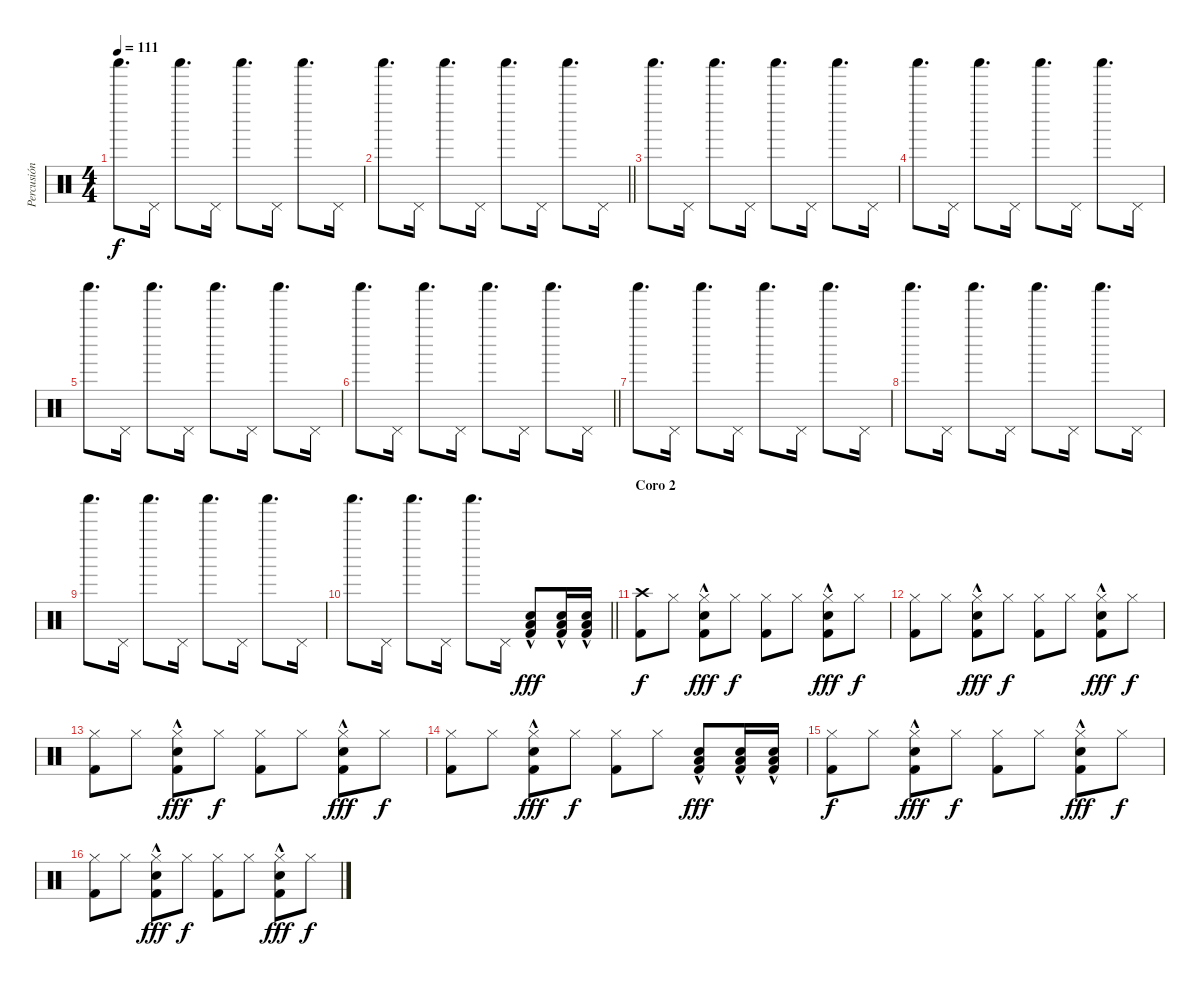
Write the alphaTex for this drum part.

\track ("Percusión" "Percusión") {instrument percussion}
\staff {score}
\articulation defaults
\ts (4 4)
\tempo 111
\clef neutral
\ks c "Shaker (hit)".8{d dy f} "Pedal Hi-Hat (hit)".16 "Shaker (hit)".8{d} "Pedal Hi-Hat (hit)".16 "Shaker (hit)".8{d} "Pedal Hi-Hat (hit)".16 "Shaker (hit)".8{d} "Pedal Hi-Hat (hit)".16
|
\barLineRight lightlight "Shaker (hit)".8{d} "Pedal Hi-Hat (hit)".16 "Shaker (hit)".8{d} "Pedal Hi-Hat (hit)".16 "Shaker (hit)".8{d} "Pedal Hi-Hat (hit)".16 "Shaker (hit)".8{d} "Pedal Hi-Hat (hit)".16
|
"Shaker (hit)".8{d} "Pedal Hi-Hat (hit)".16 "Shaker (hit)".8{d} "Pedal Hi-Hat (hit)".16 "Shaker (hit)".8{d} "Pedal Hi-Hat (hit)".16 "Shaker (hit)".8{d} "Pedal Hi-Hat (hit)".16 |
"Shaker (hit)".8{d} "Pedal Hi-Hat (hit)".16 "Shaker (hit)".8{d} "Pedal Hi-Hat (hit)".16 "Shaker (hit)".8{d} "Pedal Hi-Hat (hit)".16 "Shaker (hit)".8{d} "Pedal Hi-Hat (hit)".16 |
"Shaker (hit)".8{d} "Pedal Hi-Hat (hit)".16 "Shaker (hit)".8{d} "Pedal Hi-Hat (hit)".16 "Shaker (hit)".8{d} "Pedal Hi-Hat (hit)".16 "Shaker (hit)".8{d} "Pedal Hi-Hat (hit)".16 |
\barLineRight lightlight "Shaker (hit)".8{d} "Pedal Hi-Hat (hit)".16 "Shaker (hit)".8{d} "Pedal Hi-Hat (hit)".16 "Shaker (hit)".8{d} "Pedal Hi-Hat (hit)".16 "Shaker (hit)".8{d} "Pedal Hi-Hat (hit)".16
|
"Shaker (hit)".8{d} "Pedal Hi-Hat (hit)".16 "Shaker (hit)".8{d} "Pedal Hi-Hat (hit)".16 "Shaker (hit)".8{d} "Pedal Hi-Hat (hit)".16 "Shaker (hit)".8{d} "Pedal Hi-Hat (hit)".16 |
"Shaker (hit)".8{d} "Pedal Hi-Hat (hit)".16 "Shaker (hit)".8{d} "Pedal Hi-Hat (hit)".16 "Shaker (hit)".8{d} "Pedal Hi-Hat (hit)".16 "Shaker (hit)".8{d} "Pedal Hi-Hat (hit)".16 |
"Shaker (hit)".8{d} "Pedal Hi-Hat (hit)".16 "Shaker (hit)".8{d} "Pedal Hi-Hat (hit)".16 "Shaker (hit)".8{d} "Pedal Hi-Hat (hit)".16 "Shaker (hit)".8{d} "Pedal Hi-Hat (hit)".16 |
\barLineRight lightlight "Shaker (hit)".8{d} "Pedal Hi-Hat (hit)".16 "Shaker (hit)".8{d} "Pedal Hi-Hat (hit)".16 "Shaker (hit)".8{d} "Pedal Hi-Hat (hit)".16
("Snare (hit) 2"{hac} "Low Floor Tom (hit)"{hac} "Kick (hit) 2"{hac}).8{dy fff} ("Snare (hit) 2"{hac} "Low Floor Tom (hit)"{hac} "Kick (hit) 2"{hac}).16 ("Snare (hit) 2"{hac} "Low Floor Tom (hit)"{hac} "Kick (hit) 2"{hac}).16 |
\section ("" "Coro 2")
("Crash high (hit)" "Kick (hit) 2").8{dy f} "Hi-Hat (closed)".8 ("Electric Snare (hit)"{hac} "Hi-Hat (closed)"{hac} "Kick (hit) 2"{hac}).8{dy fff} "Hi-Hat (closed)".8{dy f} ("Hi-Hat (closed)" "Kick (hit) 2").8 "Hi-Hat (closed)".8 ("Electric Snare (hit)"{hac} "Hi-Hat (closed)"{hac} "Kick (hit) 2"{hac}).8{dy fff} "Hi-Hat (closed)".8{dy f} |
("Hi-Hat (closed)" "Kick (hit) 2").8 "Hi-Hat (closed)".8 ("Electric Snare (hit)"{hac} "Hi-Hat (closed)"{hac} "Kick (hit) 2"{hac}).8{dy fff} "Hi-Hat (closed)".8{dy f} ("Hi-Hat (closed)" "Kick (hit) 2").8 "Hi-Hat (closed)".8 ("Electric Snare (hit)"{hac} "Hi-Hat (closed)"{hac} "Kick (hit) 2"{hac}).8{dy fff} "Hi-Hat (closed)".8{dy f} |
("Hi-Hat (closed)" "Kick (hit) 2").8 "Hi-Hat (closed)".8 ("Electric Snare (hit)"{hac} "Hi-Hat (closed)"{hac} "Kick (hit) 2"{hac}).8{dy fff} "Hi-Hat (closed)".8{dy f} ("Hi-Hat (closed)" "Kick (hit) 2").8 "Hi-Hat (closed)".8 ("Electric Snare (hit)"{hac} "Hi-Hat (closed)"{hac} "Kick (hit) 2"{hac}).8{dy fff} "Hi-Hat (closed)".8{dy f} |
("Hi-Hat (closed)" "Kick (hit) 2").8 "Hi-Hat (closed)".8 ("Electric Snare (hit)"{hac} "Hi-Hat (closed)"{hac} "Kick (hit) 2"{hac}).8{dy fff} "Hi-Hat (closed)".8{dy f} ("Hi-Hat (closed)" "Kick (hit) 2").8 "Hi-Hat (closed)".8 ("Snare (hit) 2"{hac} "Low Floor Tom (hit)"{hac} "Kick (hit) 2"{hac}).8{dy fff} ("Snare (hit) 2"{hac} "Low Floor Tom (hit)"{hac} "Kick (hit) 2"{hac}).16 ("Snare (hit) 2"{hac} "Low Floor Tom (hit)"{hac} "Kick (hit) 2"{hac}).16 |
("Hi-Hat (closed)" "Kick (hit) 2").8{dy f} "Hi-Hat (closed)".8 ("Electric Snare (hit)"{hac} "Hi-Hat (closed)"{hac} "Kick (hit) 2"{hac}).8{dy fff} "Hi-Hat (closed)".8{dy f} ("Hi-Hat (closed)" "Kick (hit) 2").8 "Hi-Hat (closed)".8 ("Electric Snare (hit)"{hac} "Hi-Hat (closed)"{hac} "Kick (hit) 2"{hac}).8{dy fff} "Hi-Hat (closed)".8{dy f} |
("Hi-Hat (closed)" "Kick (hit) 2").8 "Hi-Hat (closed)".8 ("Electric Snare (hit)"{hac} "Hi-Hat (closed)"{hac} "Kick (hit) 2"{hac}).8{dy fff} "Hi-Hat (closed)".8{dy f} ("Hi-Hat (closed)" "Kick (hit) 2").8 "Hi-Hat (closed)".8 ("Electric Snare (hit)"{hac} "Hi-Hat (closed)"{hac} "Kick (hit) 2"{hac}).8{dy fff} "Hi-Hat (closed)".8{dy f}
